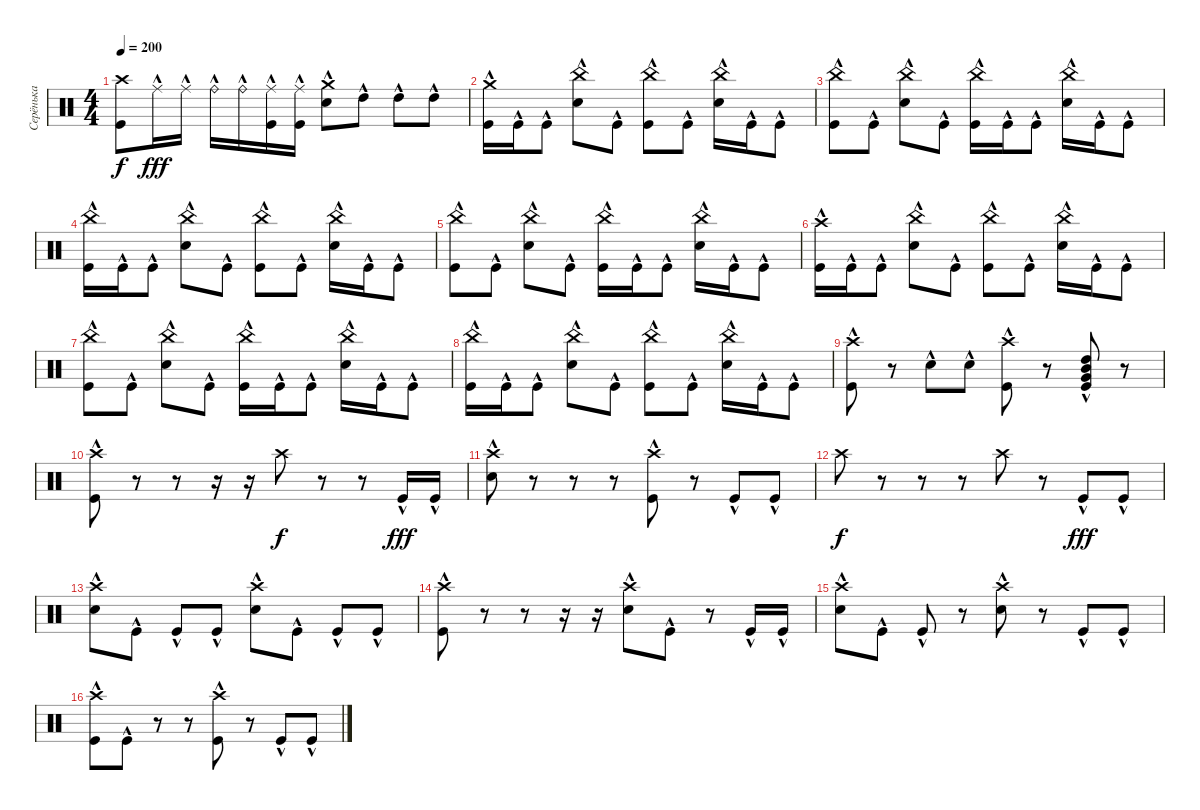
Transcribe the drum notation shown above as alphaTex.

\track ("Серёнька" "Серёнька") {instrument percussion}
\staff {score}
\articulation defaults
\ts (4 4)
\tempo 200
\clef neutral
\ks c
("Crash high (hit)" "Kick (hit)").8{dy f} "Ride (middle)"{hac}.16{dy fff} "Ride (middle)"{hac}.16 "Ride (bell)"{hac}.16 "Ride (bell)"{hac}.16 ("Ride (middle)"{hac} "Kick (hit)"{hac}).16 ("Ride (middle)"{hac} "Kick (hit)"{hac}).16 ("Crash medium (hit)"{hac} "Snare (hit) 2"{hac}).8 "High Tom (hit)"{hac}.8 "High Tom (hit)"{hac}.8 "High Tom (hit)"{hac}.8 |
("Crash medium (hit)"{hac} "Kick (hit)"{hac}).16 "Kick (hit)"{hac}.16 "Kick (hit)"{hac}.8 ("China (hit)" "Snare (hit) 2"{hac}).8 "Kick (hit)"{hac}.8 ("China (hit)" "Kick (hit)"{hac}).8 "Kick (hit)"{hac}.8 ("China (hit)" "Snare (hit) 2"{hac}).16 "Kick (hit)"{hac}.16 "Kick (hit)"{hac}.8 |
("China (hit)" "Kick (hit)"{hac}).8 "Kick (hit)"{hac}.8 ("China (hit)" "Snare (hit) 2"{hac}).8 "Kick (hit)"{hac}.8 ("China (hit)" "Kick (hit)"{hac}).16 "Kick (hit)"{hac}.16 "Kick (hit)"{hac}.8 ("China (hit)" "Snare (hit) 2"{hac}).16 "Kick (hit)"{hac}.16 "Kick (hit)"{hac}.8 |
("China (hit)" "Kick (hit)"{hac}).16 "Kick (hit)"{hac}.16 "Kick (hit)"{hac}.8 ("China (hit)" "Snare (hit) 2"{hac}).8 "Kick (hit)"{hac}.8 ("China (hit)" "Kick (hit)"{hac}).8 "Kick (hit)"{hac}.8 ("China (hit)" "Snare (hit) 2"{hac}).16 "Kick (hit)"{hac}.16 "Kick (hit)"{hac}.8 |
("China (hit)" "Kick (hit)"{hac}).8 "Kick (hit)"{hac}.8 ("China (hit)" "Snare (hit) 2"{hac}).8 "Kick (hit)"{hac}.8 ("China (hit)" "Kick (hit)"{hac}).16 "Kick (hit)"{hac}.16 "Kick (hit)"{hac}.8 ("China (hit)" "Snare (hit) 2"{hac}).16 "Kick (hit)"{hac}.16 "Kick (hit)"{hac}.8 |
("Crash high (hit)"{hac} "Kick (hit)"{hac}).16 "Kick (hit)"{hac}.16 "Kick (hit)"{hac}.8 ("China (hit)" "Snare (hit) 2"{hac}).8 "Kick (hit)"{hac}.8 ("China (hit)" "Kick (hit)"{hac}).8 "Kick (hit)"{hac}.8 ("China (hit)" "Snare (hit) 2"{hac}).16 "Kick (hit)"{hac}.16 "Kick (hit)"{hac}.8 |
("China (hit)" "Kick (hit)"{hac}).8 "Kick (hit)"{hac}.8 ("China (hit)" "Snare (hit) 2"{hac}).8 "Kick (hit)"{hac}.8 ("China (hit)" "Kick (hit)"{hac}).16 "Kick (hit)"{hac}.16 "Kick (hit)"{hac}.8 ("China (hit)" "Snare (hit) 2"{hac}).16 "Kick (hit)"{hac}.16 "Kick (hit)"{hac}.8 |
("China (hit)" "Kick (hit)"{hac}).16 "Kick (hit)"{hac}.16 "Kick (hit)"{hac}.8 ("China (hit)" "Snare (hit) 2"{hac}).8 "Kick (hit)"{hac}.8 ("China (hit)" "Kick (hit)"{hac}).8 "Kick (hit)"{hac}.8 ("China (hit)" "Snare (hit) 2"{hac}).16 "Kick (hit)"{hac}.16 "Kick (hit)"{hac}.8 |
("Crash high (hit)"{hac} "Kick (hit)"{hac}).8 r.8 "Snare (hit) 2"{hac}.8 "Snare (hit) 2"{hac}.8 ("Crash high (hit)"{hac} "Kick (hit)"{hac}).8 r.8 ("Kick (hit)"{hac} "High Tom (hit)"{hac} "Mid Tom (hit)"{hac} "Very Low Tom (hit)"{hac}).8 r.8 |
("Crash high (hit)"{hac} "Kick (hit)"{hac}).8 r.8 r.8 r.16 r.16 "Crash high (hit)".8{dy f} r.8 r.8 "Kick (hit)"{hac}.16{dy fff} "Kick (hit)"{hac}.16 |
("Crash high (hit)" "Snare (hit) 2"{hac}).8 r.8 r.8 r.8 ("Crash high (hit)" "Kick (hit)"{hac}).8 r.8 "Kick (hit)"{hac}.8 "Kick (hit)"{hac}.8 |
"Crash high (hit)".8{dy f} r.8 r.8 r.8 "Crash high (hit)".8 r.8 "Kick (hit)"{hac}.8{dy fff} "Kick (hit)"{hac}.8 |
("Crash high (hit)" "Snare (hit) 2"{hac}).8 "Kick (hit)"{hac}.8 "Kick (hit)"{hac}.8 "Kick (hit)"{hac}.8 ("Crash high (hit)" "Snare (hit) 2"{hac}).8 "Kick (hit)"{hac}.8 "Kick (hit)"{hac}.8 "Kick (hit)"{hac}.8 |
("Crash high (hit)"{hac} "Kick (hit)"{hac}).8 r.8 r.8 r.16 r.16 ("Crash high (hit)" "Snare (hit) 2"{hac}).8 "Kick (hit)"{hac}.8 r.8 "Kick (hit)"{hac}.16 "Kick (hit)"{hac}.16 |
("Crash high (hit)" "Snare (hit) 2"{hac}).8 "Kick (hit)"{hac}.8 "Kick (hit)"{hac}.8 r.8 ("Crash high (hit)" "Snare (hit) 2"{hac}).8 r.8 "Kick (hit)"{hac}.8 "Kick (hit)"{hac}.8 |
("Crash high (hit)" "Kick (hit)"{hac}).8 "Kick (hit)"{hac}.8 r.8 r.8 ("Crash high (hit)" "Kick (hit)"{hac}).8 r.8 "Kick (hit)"{hac}.8 "Kick (hit)"{hac}.8
